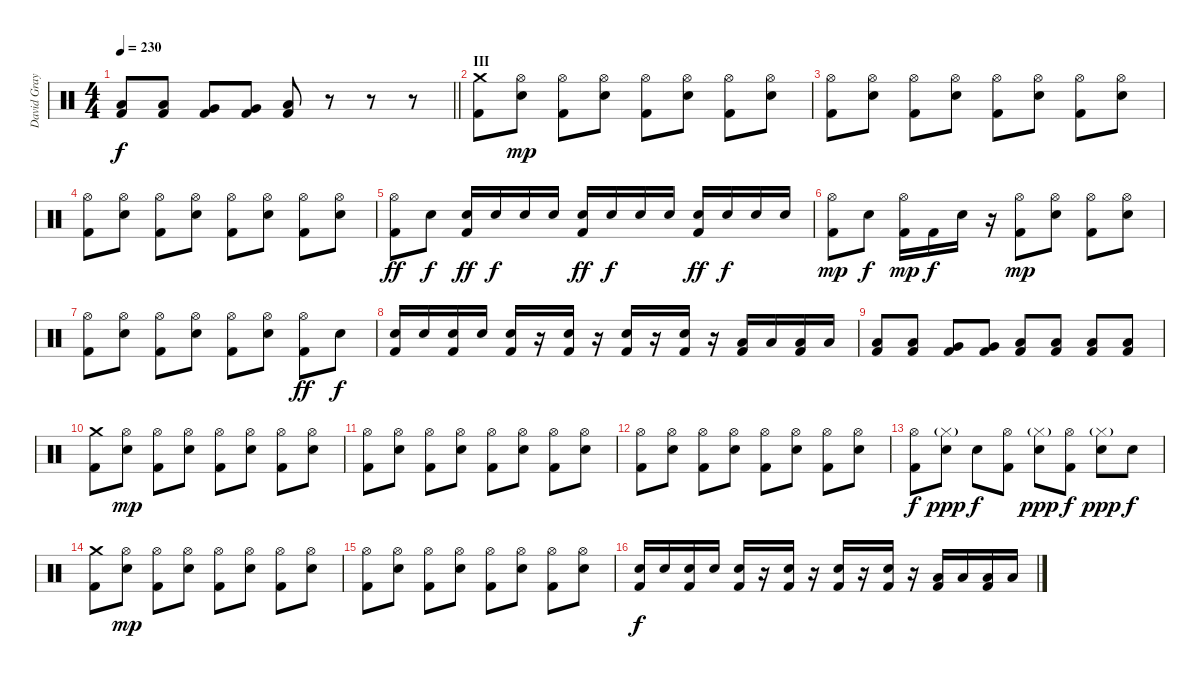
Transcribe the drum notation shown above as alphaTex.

\track ("David Gray" "David Gray") {instrument percussion}
\staff {score}
\articulation defaults
\ts (4 4)
\tempo 230
\clef neutral
\barLineRight lightlight
\ks c
("Low Tom (hit)" "Kick (hit) 2").8{dy f} ("Low Tom (hit)" "Kick (hit) 2").8 ("Very Low Tom (hit)" "Kick (hit) 2").8 ("Very Low Tom (hit)" "Kick (hit) 2").8 ("Low Floor Tom (hit)" "Kick (hit) 2").8 r.8 r.8 r.8 |
\section ("" "III")
("Crash medium (hit)" "Kick (hit) 2").8 ("Hi-Hat (open)" "Electric Snare (hit)").8{dy mp} ("Hi-Hat (open)" "Kick (hit) 2").8 ("Hi-Hat (open)" "Electric Snare (hit)").8 ("Hi-Hat (open)" "Kick (hit) 2").8 ("Hi-Hat (open)" "Electric Snare (hit)").8 ("Hi-Hat (open)" "Kick (hit) 2").8 ("Hi-Hat (open)" "Electric Snare (hit)").8 |
("Hi-Hat (open)" "Kick (hit) 2").8 ("Hi-Hat (open)" "Electric Snare (hit)").8 ("Hi-Hat (open)" "Kick (hit) 2").8 ("Hi-Hat (open)" "Electric Snare (hit)").8 ("Hi-Hat (open)" "Kick (hit) 2").8 ("Hi-Hat (open)" "Electric Snare (hit)").8 ("Hi-Hat (open)" "Kick (hit) 2").8 ("Hi-Hat (open)" "Electric Snare (hit)").8 |
("Hi-Hat (open)" "Kick (hit) 2").8 ("Hi-Hat (open)" "Electric Snare (hit)").8 ("Hi-Hat (open)" "Kick (hit) 2").8 ("Hi-Hat (open)" "Electric Snare (hit)").8 ("Hi-Hat (open)" "Kick (hit) 2").8 ("Hi-Hat (open)" "Electric Snare (hit)").8 ("Hi-Hat (open)" "Kick (hit) 2").8 ("Hi-Hat (open)" "Electric Snare (hit)").8 |
("Hi-Hat (open)" "Kick (hit) 2").8{dy ff} "Electric Snare (hit)".8{dy f} ("Electric Snare (hit)" "Kick (hit) 2").16{dy ff} "Electric Snare (hit)".16{dy f} "Electric Snare (hit)".16 "Electric Snare (hit)".16 ("Electric Snare (hit)" "Kick (hit) 2").16{dy ff} "Electric Snare (hit)".16{dy f} "Electric Snare (hit)".16 "Electric Snare (hit)".16 ("Electric Snare (hit)" "Kick (hit) 2").16{dy ff} "Electric Snare (hit)".16{dy f} "Electric Snare (hit)".16 "Electric Snare (hit)".16 |
("Hi-Hat (open)" "Kick (hit) 2").8{dy mp} "Electric Snare (hit)".8{dy f} ("Hi-Hat (open)" "Kick (hit) 2").16{dy mp} "Kick (hit) 2".16{dy f} "Electric Snare (hit)".16 r.16 ("Hi-Hat (open)" "Kick (hit) 2").8{dy mp} ("Hi-Hat (open)" "Electric Snare (hit)").8 ("Hi-Hat (open)" "Kick (hit) 2").8 ("Hi-Hat (open)" "Electric Snare (hit)").8 |
("Hi-Hat (open)" "Kick (hit) 2").8 ("Hi-Hat (open)" "Electric Snare (hit)").8 ("Hi-Hat (open)" "Kick (hit) 2").8 ("Hi-Hat (open)" "Electric Snare (hit)").8 ("Hi-Hat (open)" "Kick (hit) 2").8 ("Hi-Hat (open)" "Electric Snare (hit)").8 ("Hi-Hat (open)" "Kick (hit) 2").8{dy ff} "Electric Snare (hit)".8{dy f} |
("Electric Snare (hit)" "Kick (hit) 2").16 "Electric Snare (hit)".16 ("Electric Snare (hit)" "Kick (hit) 2").16 "Electric Snare (hit)".16 ("Electric Snare (hit)" "Kick (hit) 2").16 r.16 ("Electric Snare (hit)" "Kick (hit) 2").16 r.16 ("Electric Snare (hit)" "Kick (hit) 2").16 r.16 ("Electric Snare (hit)" "Kick (hit) 2").16 r.16 ("Low Tom (hit)" "Kick (hit) 2").16 "Low Tom (hit)".16 ("Low Tom (hit)" "Kick (hit) 2").16 "Low Tom (hit)".16 |
("Low Tom (hit)" "Kick (hit) 2").8 ("Low Tom (hit)" "Kick (hit) 2").8 ("Very Low Tom (hit)" "Kick (hit) 2").8 ("Very Low Tom (hit)" "Kick (hit) 2").8 ("Low Floor Tom (hit)" "Kick (hit) 2").8 ("Low Floor Tom (hit)" "Kick (hit) 2").8 ("Low Floor Tom (hit)" "Kick (hit) 2").8 ("Low Floor Tom (hit)" "Kick (hit) 2").8 |
("Crash medium (hit)" "Kick (hit) 2").8 ("Hi-Hat (open)" "Electric Snare (hit)").8{dy mp} ("Hi-Hat (open)" "Kick (hit) 2").8 ("Hi-Hat (open)" "Electric Snare (hit)").8 ("Hi-Hat (open)" "Kick (hit) 2").8 ("Hi-Hat (open)" "Electric Snare (hit)").8 ("Hi-Hat (open)" "Kick (hit) 2").8 ("Hi-Hat (open)" "Electric Snare (hit)").8 |
("Hi-Hat (open)" "Kick (hit) 2").8 ("Hi-Hat (open)" "Electric Snare (hit)").8 ("Hi-Hat (open)" "Kick (hit) 2").8 ("Hi-Hat (open)" "Electric Snare (hit)").8 ("Hi-Hat (open)" "Kick (hit) 2").8 ("Hi-Hat (open)" "Electric Snare (hit)").8 ("Hi-Hat (open)" "Kick (hit) 2").8 ("Hi-Hat (open)" "Electric Snare (hit)").8 |
("Hi-Hat (open)" "Kick (hit) 2").8 ("Hi-Hat (open)" "Electric Snare (hit)").8 ("Hi-Hat (open)" "Kick (hit) 2").8 ("Hi-Hat (open)" "Electric Snare (hit)").8 ("Hi-Hat (open)" "Kick (hit) 2").8 ("Hi-Hat (open)" "Electric Snare (hit)").8 ("Hi-Hat (open)" "Kick (hit) 2").8 ("Hi-Hat (open)" "Electric Snare (hit)").8 |
("Hi-Hat (open)" "Kick (hit) 2").8{dy f} ("Hi-Hat (closed)"{g} "Electric Snare (hit)").8{dy ppp} "Electric Snare (hit)".8{dy f} ("Hi-Hat (open)" "Kick (hit) 2").8 ("Hi-Hat (closed)"{g} "Electric Snare (hit)").8{dy ppp} ("Hi-Hat (open)" "Kick (hit) 2").8{dy f} ("Hi-Hat (closed)"{g} "Electric Snare (hit)").8{dy ppp} "Electric Snare (hit)".8{dy f} |
("Crash medium (hit)" "Kick (hit) 2").8 ("Hi-Hat (open)" "Electric Snare (hit)").8{dy mp} ("Hi-Hat (open)" "Kick (hit) 2").8 ("Hi-Hat (open)" "Electric Snare (hit)").8 ("Hi-Hat (open)" "Kick (hit) 2").8 ("Hi-Hat (open)" "Electric Snare (hit)").8 ("Hi-Hat (open)" "Kick (hit) 2").8 ("Hi-Hat (open)" "Electric Snare (hit)").8 |
("Hi-Hat (open)" "Kick (hit) 2").8 ("Hi-Hat (open)" "Electric Snare (hit)").8 ("Hi-Hat (open)" "Kick (hit) 2").8 ("Hi-Hat (open)" "Electric Snare (hit)").8 ("Hi-Hat (open)" "Kick (hit) 2").8 ("Hi-Hat (open)" "Electric Snare (hit)").8 ("Hi-Hat (open)" "Kick (hit) 2").8 ("Hi-Hat (open)" "Electric Snare (hit)").8 |
("Electric Snare (hit)" "Kick (hit) 2").16{dy f} "Electric Snare (hit)".16 ("Electric Snare (hit)" "Kick (hit) 2").16 "Electric Snare (hit)".16 ("Electric Snare (hit)" "Kick (hit) 2").16 r.16 ("Electric Snare (hit)" "Kick (hit) 2").16 r.16 ("Electric Snare (hit)" "Kick (hit) 2").16 r.16 ("Electric Snare (hit)" "Kick (hit) 2").16 r.16 ("Low Tom (hit)" "Kick (hit) 2").16 "Low Tom (hit)".16 ("Low Tom (hit)" "Kick (hit) 2").16 "Low Tom (hit)".16
